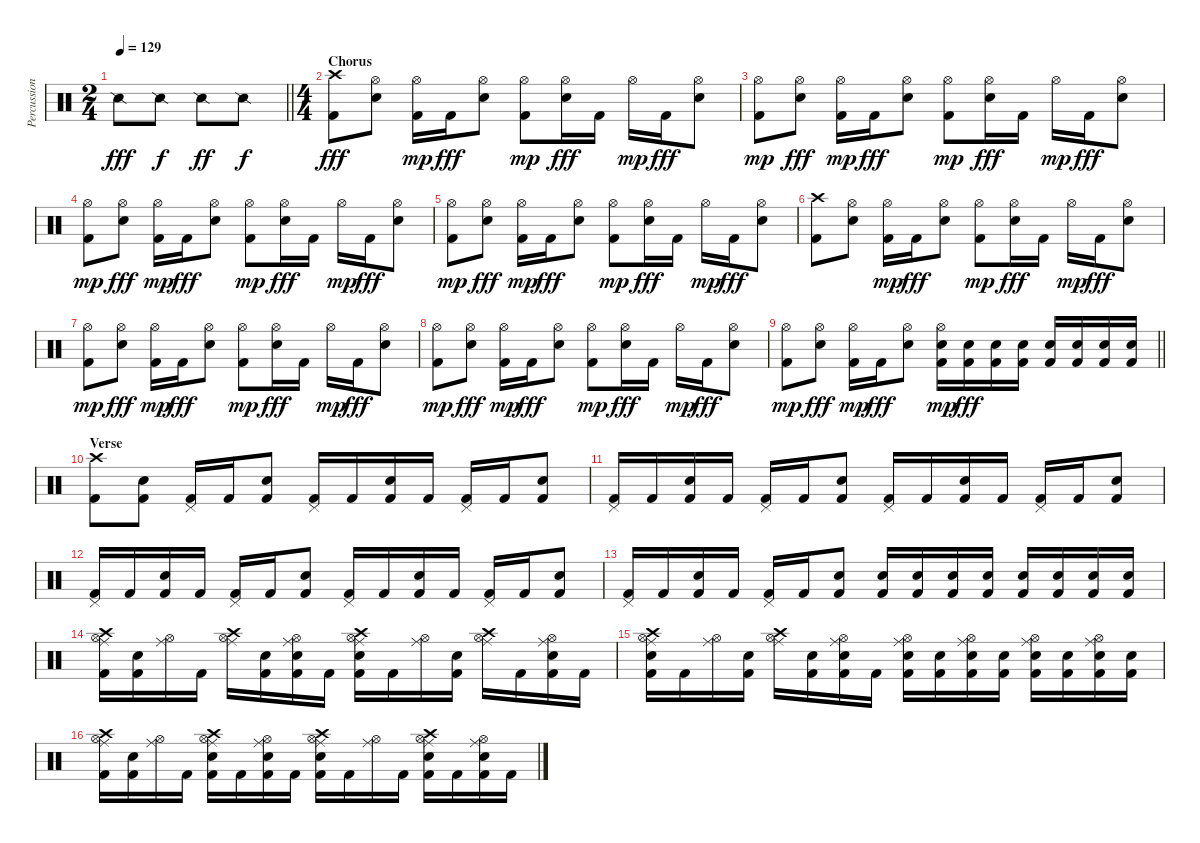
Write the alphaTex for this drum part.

\track ("Percussions" "Percussion") {instrument percussion}
\staff {score}
\articulation defaults
\ts (2 4)
\tempo 129
\clef neutral
\barLineRight lightlight
\ks c "Snare (side stick) 2".8{dy fff} "Snare (side stick) 2".8{dy f} "Snare (side stick) 2".8{dy ff} "Snare (side stick) 2".8{dy f}
|
\ts (4 4)
\section ("" "Chorus")
("Kick (hit) 2" "Crash high (hit)").8{dy fff} ("Snare (hit) 2" "Hi-Hat (open)").8 ("Kick (hit) 2" "Hi-Hat (open)").16{dy mp} "Kick (hit) 2".16{dy fff} ("Snare (hit) 2" "Hi-Hat (open)").8 ("Kick (hit) 2" "Hi-Hat (open)").8{dy mp} ("Snare (hit) 2" "Hi-Hat (open)").16{dy fff} "Kick (hit) 2".16 "Hi-Hat (open)".16{dy mp} "Kick (hit) 2".16{dy fff} ("Snare (hit) 2" "Hi-Hat (open)").8 |
("Kick (hit) 2" "Hi-Hat (open)").8{dy mp} ("Snare (hit) 2" "Hi-Hat (open)").8{dy fff} ("Kick (hit) 2" "Hi-Hat (open)").16{dy mp} "Kick (hit) 2".16{dy fff} ("Snare (hit) 2" "Hi-Hat (open)").8 ("Kick (hit) 2" "Hi-Hat (open)").8{dy mp} ("Snare (hit) 2" "Hi-Hat (open)").16{dy fff} "Kick (hit) 2".16 "Hi-Hat (open)".16{dy mp} "Kick (hit) 2".16{dy fff} ("Snare (hit) 2" "Hi-Hat (open)").8 |
("Kick (hit) 2" "Hi-Hat (open)").8{dy mp} ("Snare (hit) 2" "Hi-Hat (open)").8{dy fff} ("Kick (hit) 2" "Hi-Hat (open)").16{dy mp} "Kick (hit) 2".16{dy fff} ("Snare (hit) 2" "Hi-Hat (open)").8 ("Kick (hit) 2" "Hi-Hat (open)").8{dy mp} ("Snare (hit) 2" "Hi-Hat (open)").16{dy fff} "Kick (hit) 2".16 "Hi-Hat (open)".16{dy mp} "Kick (hit) 2".16{dy fff} ("Snare (hit) 2" "Hi-Hat (open)").8 |
("Kick (hit) 2" "Hi-Hat (open)").8{dy mp} ("Snare (hit) 2" "Hi-Hat (open)").8{dy fff} ("Kick (hit) 2" "Hi-Hat (open)").16{dy mp} "Kick (hit) 2".16{dy fff} ("Snare (hit) 2" "Hi-Hat (open)").8 ("Kick (hit) 2" "Hi-Hat (open)").8{dy mp} ("Snare (hit) 2" "Hi-Hat (open)").16{dy fff} "Kick (hit) 2".16 "Hi-Hat (open)".16{dy mp} "Kick (hit) 2".16{dy fff} ("Snare (hit) 2" "Hi-Hat (open)").8 |
("Kick (hit) 2" "Crash high (hit)").8 ("Snare (hit) 2" "Hi-Hat (open)").8 ("Kick (hit) 2" "Hi-Hat (open)").16{dy mp} "Kick (hit) 2".16{dy fff} ("Snare (hit) 2" "Hi-Hat (open)").8 ("Kick (hit) 2" "Hi-Hat (open)").8{dy mp} ("Snare (hit) 2" "Hi-Hat (open)").16{dy fff} "Kick (hit) 2".16 "Hi-Hat (open)".16{dy mp} "Kick (hit) 2".16{dy fff} ("Snare (hit) 2" "Hi-Hat (open)").8 |
("Kick (hit) 2" "Hi-Hat (open)").8{dy mp} ("Snare (hit) 2" "Hi-Hat (open)").8{dy fff} ("Kick (hit) 2" "Hi-Hat (open)").16{dy mp} "Kick (hit) 2".16{dy fff} ("Snare (hit) 2" "Hi-Hat (open)").8 ("Kick (hit) 2" "Hi-Hat (open)").8{dy mp} ("Snare (hit) 2" "Hi-Hat (open)").16{dy fff} "Kick (hit) 2".16 "Hi-Hat (open)".16{dy mp} "Kick (hit) 2".16{dy fff} ("Snare (hit) 2" "Hi-Hat (open)").8 |
("Kick (hit) 2" "Hi-Hat (open)").8{dy mp} ("Snare (hit) 2" "Hi-Hat (open)").8{dy fff} ("Kick (hit) 2" "Hi-Hat (open)").16{dy mp} "Kick (hit) 2".16{dy fff} ("Snare (hit) 2" "Hi-Hat (open)").8 ("Kick (hit) 2" "Hi-Hat (open)").8{dy mp} ("Snare (hit) 2" "Hi-Hat (open)").16{dy fff} "Kick (hit) 2".16 "Hi-Hat (open)".16{dy mp} "Kick (hit) 2".16{dy fff} ("Snare (hit) 2" "Hi-Hat (open)").8 |
\barLineRight lightlight
("Kick (hit) 2" "Hi-Hat (open)").8{dy mp} ("Snare (hit) 2" "Hi-Hat (open)").8{dy fff} ("Kick (hit) 2" "Hi-Hat (open)").16{dy mp} "Kick (hit) 2".16{dy fff} ("Snare (hit) 2" "Hi-Hat (open)").8 ("Kick (hit) 2" "Snare (hit) 2" "Hi-Hat (open)").16{dy mp} ("Kick (hit) 2" "Snare (hit) 2").16{dy fff} ("Kick (hit) 2" "Snare (hit) 2").16 ("Kick (hit) 2" "Snare (hit) 2").16 ("Kick (hit) 2" "Snare (hit) 2").16 ("Kick (hit) 2" "Snare (hit) 2").16 ("Kick (hit) 2" "Snare (hit) 2").16 ("Kick (hit) 2" "Snare (hit) 2").16 |
\section ("" "Verse")
("Kick (hit) 2" "Crash high (hit)").8 ("Kick (hit) 2" "Snare (hit) 2").8 ("Kick (hit) 2" "Pedal Hi-Hat (hit)").16 "Kick (hit) 2".16 ("Kick (hit) 2" "Snare (hit) 2").8 ("Kick (hit) 2" "Pedal Hi-Hat (hit)").16 "Kick (hit) 2".16 ("Kick (hit) 2" "Snare (hit) 2").16 "Kick (hit) 2".16 ("Kick (hit) 2" "Pedal Hi-Hat (hit)").16 "Kick (hit) 2".16 ("Kick (hit) 2" "Snare (hit) 2").8 |
("Kick (hit) 2" "Pedal Hi-Hat (hit)").16 "Kick (hit) 2".16 ("Kick (hit) 2" "Snare (hit) 2").16 "Kick (hit) 2".16 ("Kick (hit) 2" "Pedal Hi-Hat (hit)").16 "Kick (hit) 2".16 ("Kick (hit) 2" "Snare (hit) 2").8 ("Kick (hit) 2" "Pedal Hi-Hat (hit)").16 "Kick (hit) 2".16 ("Kick (hit) 2" "Snare (hit) 2").16 "Kick (hit) 2".16 ("Kick (hit) 2" "Pedal Hi-Hat (hit)").16 "Kick (hit) 2".16 ("Kick (hit) 2" "Snare (hit) 2").8 |
("Kick (hit) 2" "Pedal Hi-Hat (hit)").16 "Kick (hit) 2".16 ("Kick (hit) 2" "Snare (hit) 2").16 "Kick (hit) 2".16 ("Kick (hit) 2" "Pedal Hi-Hat (hit)").16 "Kick (hit) 2".16 ("Kick (hit) 2" "Snare (hit) 2").8 ("Kick (hit) 2" "Pedal Hi-Hat (hit)").16 "Kick (hit) 2".16 ("Kick (hit) 2" "Snare (hit) 2").16 "Kick (hit) 2".16 ("Kick (hit) 2" "Pedal Hi-Hat (hit)").16 "Kick (hit) 2".16 ("Kick (hit) 2" "Snare (hit) 2").8 |
("Kick (hit) 2" "Pedal Hi-Hat (hit)").16 "Kick (hit) 2".16 ("Kick (hit) 2" "Snare (hit) 2").16 "Kick (hit) 2".16 ("Kick (hit) 2" "Pedal Hi-Hat (hit)").16 "Kick (hit) 2".16 ("Kick (hit) 2" "Snare (hit) 2").8 ("Kick (hit) 2" "Snare (hit) 2").16 ("Kick (hit) 2" "Snare (hit) 2").16 ("Kick (hit) 2" "Snare (hit) 2").16 ("Kick (hit) 2" "Snare (hit) 2").16 ("Kick (hit) 2" "Snare (hit) 2").16 ("Kick (hit) 2" "Snare (hit) 2").16 ("Kick (hit) 2" "Snare (hit) 2").16 ("Kick (hit) 2" "Snare (hit) 2").16 |
("Kick (hit) 2" "Hi-Hat (open)" "Crash high (hit)" "Ride (middle)").16 ("Kick (hit) 2" "Snare (hit) 2").16 ("Hi-Hat (open)" "Ride (middle)").16 "Kick (hit) 2".16 ("Hi-Hat (open)" "Crash high (hit)" "Ride (middle)").16 ("Kick (hit) 2" "Snare (hit) 2").16 ("Kick (hit) 2" "Snare (hit) 2" "Hi-Hat (open)" "Ride (middle)").16 "Kick (hit) 2".16 ("Kick (hit) 2" "Snare (hit) 2" "Hi-Hat (open)" "Crash high (hit)" "Ride (middle)").16 "Kick (hit) 2".16 ("Hi-Hat (open)" "Ride (middle)").16 ("Kick (hit) 2" "Snare (hit) 2").16 ("Hi-Hat (open)" "Crash high (hit)" "Ride (middle)").16 "Kick (hit) 2".16 ("Kick (hit) 2" "Snare (hit) 2" "Hi-Hat (open)" "Ride (middle)").16 "Kick (hit) 2".16 |
("Kick (hit) 2" "Snare (hit) 2" "Hi-Hat (open)" "Crash high (hit)" "Ride (middle)").16 "Kick (hit) 2".16 ("Hi-Hat (open)" "Ride (middle)").16 ("Kick (hit) 2" "Snare (hit) 2").16 ("Hi-Hat (open)" "Crash high (hit)" "Ride (middle)").16 ("Kick (hit) 2" "Snare (hit) 2").16 ("Kick (hit) 2" "Snare (hit) 2" "Hi-Hat (open)" "Ride (middle)").16 "Kick (hit) 2".16 ("Kick (hit) 2" "Snare (hit) 2" "Hi-Hat (open)" "Ride (middle)").16 ("Kick (hit) 2" "Snare (hit) 2").16 ("Kick (hit) 2" "Snare (hit) 2" "Hi-Hat (open)" "Ride (middle)").16 ("Kick (hit) 2" "Snare (hit) 2").16 ("Kick (hit) 2" "Snare (hit) 2" "Hi-Hat (open)" "Ride (middle)").16 ("Kick (hit) 2" "Snare (hit) 2").16 ("Kick (hit) 2" "Snare (hit) 2" "Hi-Hat (open)" "Ride (middle)").16 ("Kick (hit) 2" "Snare (hit) 2").16 |
("Kick (hit) 2" "Hi-Hat (open)" "Crash high (hit)" "Ride (middle)").16 ("Kick (hit) 2" "Snare (hit) 2").16 ("Hi-Hat (open)" "Ride (middle)").16 "Kick (hit) 2".16 ("Kick (hit) 2" "Snare (hit) 2" "Hi-Hat (open)" "Crash high (hit)" "Ride (middle)").16 "Kick (hit) 2".16 ("Kick (hit) 2" "Snare (hit) 2" "Hi-Hat (open)" "Ride (middle)").16 "Kick (hit) 2".16 ("Kick (hit) 2" "Snare (hit) 2" "Hi-Hat (open)" "Crash high (hit)" "Ride (middle)").16 "Kick (hit) 2".16 ("Hi-Hat (open)" "Ride (middle)").16 "Kick (hit) 2".16 ("Kick (hit) 2" "Snare (hit) 2" "Hi-Hat (open)" "Crash high (hit)" "Ride (middle)").16 "Kick (hit) 2".16 ("Kick (hit) 2" "Snare (hit) 2" "Hi-Hat (open)" "Ride (middle)").16 "Kick (hit) 2".16
